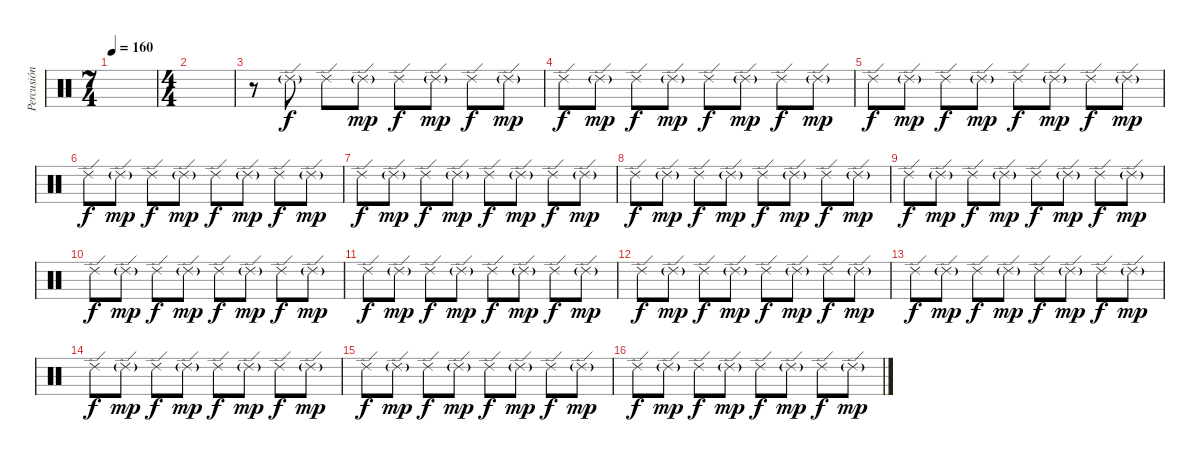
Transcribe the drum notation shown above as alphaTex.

\track ("Percusión" "Percusión") {instrument percussion}
\staff {score}
\articulation defaults
\ts (7 4)
\tempo 160
\clef neutral
\ks c
|
\ts (4 4)
|
r.8 "Ride (edge) 2"{g}.8 "Ride (edge) 2".8{dy f} "Ride (edge) 2"{g}.8{dy mp} "Ride (edge) 2".8{dy f} "Ride (edge) 2"{g}.8{dy mp} "Ride (edge) 2".8{dy f} "Ride (edge) 2"{g}.8{dy mp} |
"Ride (edge) 2".8{dy f} "Ride (edge) 2"{g}.8{dy mp} "Ride (edge) 2".8{dy f} "Ride (edge) 2"{g}.8{dy mp} "Ride (edge) 2".8{dy f} "Ride (edge) 2"{g}.8{dy mp} "Ride (edge) 2".8{dy f} "Ride (edge) 2"{g}.8{dy mp} |
"Ride (edge) 2".8{dy f} "Ride (edge) 2"{g}.8{dy mp} "Ride (edge) 2".8{dy f} "Ride (edge) 2"{g}.8{dy mp} "Ride (edge) 2".8{dy f} "Ride (edge) 2"{g}.8{dy mp} "Ride (edge) 2".8{dy f} "Ride (edge) 2"{g}.8{dy mp} |
"Ride (edge) 2".8{dy f} "Ride (edge) 2"{g}.8{dy mp} "Ride (edge) 2".8{dy f} "Ride (edge) 2"{g}.8{dy mp} "Ride (edge) 2".8{dy f} "Ride (edge) 2"{g}.8{dy mp} "Ride (edge) 2".8{dy f} "Ride (edge) 2"{g}.8{dy mp} |
"Ride (edge) 2".8{dy f} "Ride (edge) 2"{g}.8{dy mp} "Ride (edge) 2".8{dy f} "Ride (edge) 2"{g}.8{dy mp} "Ride (edge) 2".8{dy f} "Ride (edge) 2"{g}.8{dy mp} "Ride (edge) 2".8{dy f} "Ride (edge) 2"{g}.8{dy mp} |
"Ride (edge) 2".8{dy f} "Ride (edge) 2"{g}.8{dy mp} "Ride (edge) 2".8{dy f} "Ride (edge) 2"{g}.8{dy mp} "Ride (edge) 2".8{dy f} "Ride (edge) 2"{g}.8{dy mp} "Ride (edge) 2".8{dy f} "Ride (edge) 2"{g}.8{dy mp} |
"Ride (edge) 2".8{dy f} "Ride (edge) 2"{g}.8{dy mp} "Ride (edge) 2".8{dy f} "Ride (edge) 2"{g}.8{dy mp} "Ride (edge) 2".8{dy f} "Ride (edge) 2"{g}.8{dy mp} "Ride (edge) 2".8{dy f} "Ride (edge) 2"{g}.8{dy mp} |
"Ride (edge) 2".8{dy f} "Ride (edge) 2"{g}.8{dy mp} "Ride (edge) 2".8{dy f} "Ride (edge) 2"{g}.8{dy mp} "Ride (edge) 2".8{dy f} "Ride (edge) 2"{g}.8{dy mp} "Ride (edge) 2".8{dy f} "Ride (edge) 2"{g}.8{dy mp} |
"Ride (edge) 2".8{dy f} "Ride (edge) 2"{g}.8{dy mp} "Ride (edge) 2".8{dy f} "Ride (edge) 2"{g}.8{dy mp} "Ride (edge) 2".8{dy f} "Ride (edge) 2"{g}.8{dy mp} "Ride (edge) 2".8{dy f} "Ride (edge) 2"{g}.8{dy mp} |
"Ride (edge) 2".8{dy f} "Ride (edge) 2"{g}.8{dy mp} "Ride (edge) 2".8{dy f} "Ride (edge) 2"{g}.8{dy mp} "Ride (edge) 2".8{dy f} "Ride (edge) 2"{g}.8{dy mp} "Ride (edge) 2".8{dy f} "Ride (edge) 2"{g}.8{dy mp} |
"Ride (edge) 2".8{dy f} "Ride (edge) 2"{g}.8{dy mp} "Ride (edge) 2".8{dy f} "Ride (edge) 2"{g}.8{dy mp} "Ride (edge) 2".8{dy f} "Ride (edge) 2"{g}.8{dy mp} "Ride (edge) 2".8{dy f} "Ride (edge) 2"{g}.8{dy mp} |
"Ride (edge) 2".8{dy f} "Ride (edge) 2"{g}.8{dy mp} "Ride (edge) 2".8{dy f} "Ride (edge) 2"{g}.8{dy mp} "Ride (edge) 2".8{dy f} "Ride (edge) 2"{g}.8{dy mp} "Ride (edge) 2".8{dy f} "Ride (edge) 2"{g}.8{dy mp} |
"Ride (edge) 2".8{dy f} "Ride (edge) 2"{g}.8{dy mp} "Ride (edge) 2".8{dy f} "Ride (edge) 2"{g}.8{dy mp} "Ride (edge) 2".8{dy f} "Ride (edge) 2"{g}.8{dy mp} "Ride (edge) 2".8{dy f} "Ride (edge) 2"{g}.8{dy mp} |
"Ride (edge) 2".8{dy f} "Ride (edge) 2"{g}.8{dy mp} "Ride (edge) 2".8{dy f} "Ride (edge) 2"{g}.8{dy mp} "Ride (edge) 2".8{dy f} "Ride (edge) 2"{g}.8{dy mp} "Ride (edge) 2".8{dy f} "Ride (edge) 2"{g}.8{dy mp}
